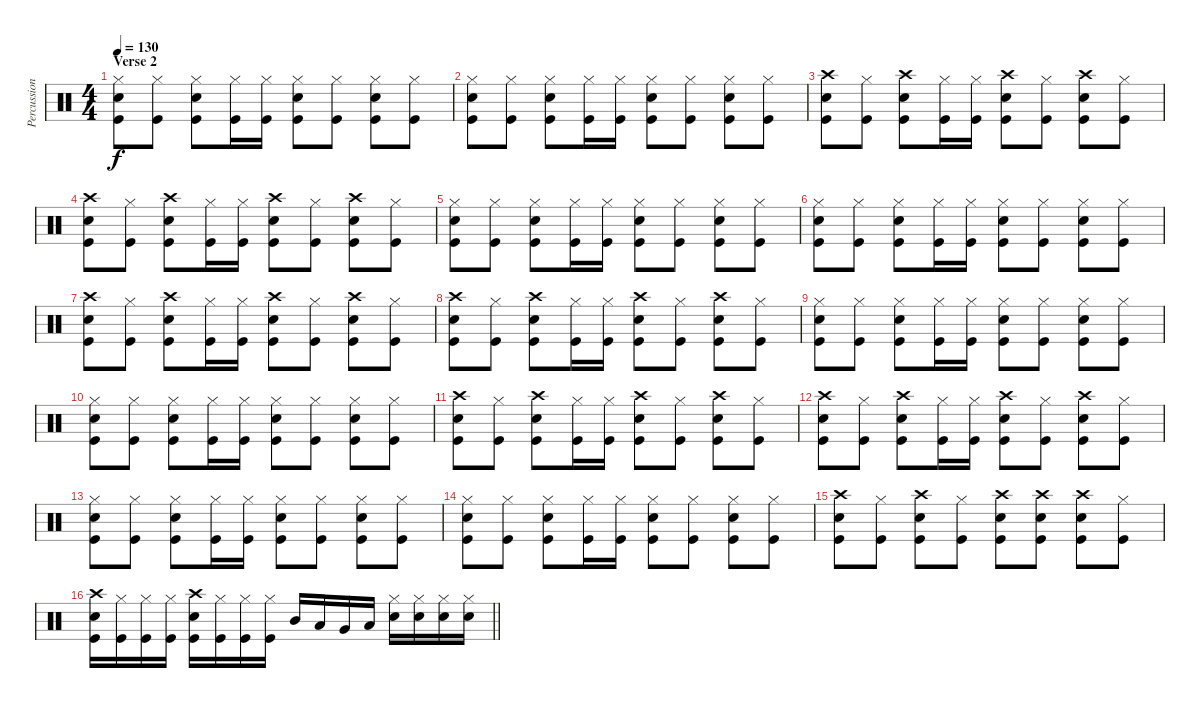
\track ("Percussions" "Percussion") {instrument percussion}
\staff {score}
\articulation defaults
\ts (4 4)
\section ("" "Verse 2")
\tempo 130
\clef neutral
\ks c
("Snare (hit) 2" "Kick (hit)" "Hi-Hat (closed)").8{dy f} ("Kick (hit)" "Hi-Hat (closed)").8 ("Snare (hit) 2" "Kick (hit)" "Hi-Hat (closed)").8 ("Kick (hit)" "Hi-Hat (closed)").16 ("Kick (hit)" "Hi-Hat (closed)").16 ("Snare (hit) 2" "Kick (hit)" "Hi-Hat (closed)").8 ("Kick (hit)" "Hi-Hat (closed)").8 ("Snare (hit) 2" "Kick (hit)" "Hi-Hat (closed)").8 ("Kick (hit)" "Hi-Hat (closed)").8 |
("Snare (hit) 2" "Kick (hit)" "Hi-Hat (closed)").8 ("Kick (hit)" "Hi-Hat (closed)").8 ("Snare (hit) 2" "Kick (hit)" "Hi-Hat (closed)").8 ("Kick (hit)" "Hi-Hat (closed)").16 ("Kick (hit)" "Hi-Hat (closed)").16 ("Snare (hit) 2" "Kick (hit)" "Hi-Hat (closed)").8 ("Kick (hit)" "Hi-Hat (closed)").8 ("Snare (hit) 2" "Kick (hit)" "Hi-Hat (closed)").8 ("Kick (hit)" "Hi-Hat (closed)").8 |
("Snare (hit) 2" "Kick (hit)" "Crash high (hit)").8 ("Kick (hit)" "Hi-Hat (closed)").8 ("Snare (hit) 2" "Kick (hit)" "Crash high (hit)").8 ("Kick (hit)" "Hi-Hat (closed)").16 ("Kick (hit)" "Hi-Hat (closed)").16 ("Snare (hit) 2" "Kick (hit)" "Crash high (hit)").8 ("Kick (hit)" "Hi-Hat (closed)").8 ("Snare (hit) 2" "Kick (hit)" "Crash high (hit)").8 ("Kick (hit)" "Hi-Hat (closed)").8 |
("Snare (hit) 2" "Kick (hit)" "Crash high (hit)").8 ("Kick (hit)" "Hi-Hat (closed)").8 ("Snare (hit) 2" "Kick (hit)" "Crash high (hit)").8 ("Kick (hit)" "Hi-Hat (closed)").16 ("Kick (hit)" "Hi-Hat (closed)").16 ("Snare (hit) 2" "Kick (hit)" "Crash high (hit)").8 ("Kick (hit)" "Hi-Hat (closed)").8 ("Snare (hit) 2" "Kick (hit)" "Crash high (hit)").8 ("Kick (hit)" "Hi-Hat (closed)").8 |
("Snare (hit) 2" "Kick (hit)" "Hi-Hat (closed)").8 ("Kick (hit)" "Hi-Hat (closed)").8 ("Snare (hit) 2" "Kick (hit)" "Hi-Hat (closed)").8 ("Kick (hit)" "Hi-Hat (closed)").16 ("Kick (hit)" "Hi-Hat (closed)").16 ("Snare (hit) 2" "Kick (hit)" "Hi-Hat (closed)").8 ("Kick (hit)" "Hi-Hat (closed)").8 ("Snare (hit) 2" "Kick (hit)" "Hi-Hat (closed)").8 ("Kick (hit)" "Hi-Hat (closed)").8 |
("Snare (hit) 2" "Kick (hit)" "Hi-Hat (closed)").8 ("Kick (hit)" "Hi-Hat (closed)").8 ("Snare (hit) 2" "Kick (hit)" "Hi-Hat (closed)").8 ("Kick (hit)" "Hi-Hat (closed)").16 ("Kick (hit)" "Hi-Hat (closed)").16 ("Snare (hit) 2" "Kick (hit)" "Hi-Hat (closed)").8 ("Kick (hit)" "Hi-Hat (closed)").8 ("Snare (hit) 2" "Kick (hit)" "Hi-Hat (closed)").8 ("Kick (hit)" "Hi-Hat (closed)").8 |
("Snare (hit) 2" "Kick (hit)" "Crash high (hit)").8 ("Kick (hit)" "Hi-Hat (closed)").8 ("Snare (hit) 2" "Kick (hit)" "Crash high (hit)").8 ("Kick (hit)" "Hi-Hat (closed)").16 ("Kick (hit)" "Hi-Hat (closed)").16 ("Snare (hit) 2" "Kick (hit)" "Crash high (hit)").8 ("Kick (hit)" "Hi-Hat (closed)").8 ("Snare (hit) 2" "Kick (hit)" "Crash high (hit)").8 ("Kick (hit)" "Hi-Hat (closed)").8 |
("Snare (hit) 2" "Kick (hit)" "Crash high (hit)").8 ("Kick (hit)" "Hi-Hat (closed)").8 ("Snare (hit) 2" "Kick (hit)" "Crash high (hit)").8 ("Kick (hit)" "Hi-Hat (closed)").16 ("Kick (hit)" "Hi-Hat (closed)").16 ("Snare (hit) 2" "Kick (hit)" "Crash high (hit)").8 ("Kick (hit)" "Hi-Hat (closed)").8 ("Snare (hit) 2" "Kick (hit)" "Crash high (hit)").8 ("Kick (hit)" "Hi-Hat (closed)").8 |
("Snare (hit) 2" "Kick (hit)" "Hi-Hat (closed)").8 ("Kick (hit)" "Hi-Hat (closed)").8 ("Snare (hit) 2" "Kick (hit)" "Hi-Hat (closed)").8 ("Kick (hit)" "Hi-Hat (closed)").16 ("Kick (hit)" "Hi-Hat (closed)").16 ("Snare (hit) 2" "Kick (hit)" "Hi-Hat (closed)").8 ("Kick (hit)" "Hi-Hat (closed)").8 ("Snare (hit) 2" "Kick (hit)" "Hi-Hat (closed)").8 ("Kick (hit)" "Hi-Hat (closed)").8 |
("Snare (hit) 2" "Kick (hit)" "Hi-Hat (closed)").8 ("Kick (hit)" "Hi-Hat (closed)").8 ("Snare (hit) 2" "Kick (hit)" "Hi-Hat (closed)").8 ("Kick (hit)" "Hi-Hat (closed)").16 ("Kick (hit)" "Hi-Hat (closed)").16 ("Snare (hit) 2" "Kick (hit)" "Hi-Hat (closed)").8 ("Kick (hit)" "Hi-Hat (closed)").8 ("Snare (hit) 2" "Kick (hit)" "Hi-Hat (closed)").8 ("Kick (hit)" "Hi-Hat (closed)").8 |
("Snare (hit) 2" "Kick (hit)" "Crash high (hit)").8 ("Kick (hit)" "Hi-Hat (closed)").8 ("Snare (hit) 2" "Kick (hit)" "Crash high (hit)").8 ("Kick (hit)" "Hi-Hat (closed)").16 ("Kick (hit)" "Hi-Hat (closed)").16 ("Snare (hit) 2" "Kick (hit)" "Crash high (hit)").8 ("Kick (hit)" "Hi-Hat (closed)").8 ("Snare (hit) 2" "Kick (hit)" "Crash high (hit)").8 ("Kick (hit)" "Hi-Hat (closed)").8 |
("Snare (hit) 2" "Kick (hit)" "Crash high (hit)").8 ("Kick (hit)" "Hi-Hat (closed)").8 ("Snare (hit) 2" "Kick (hit)" "Crash high (hit)").8 ("Kick (hit)" "Hi-Hat (closed)").16 ("Kick (hit)" "Hi-Hat (closed)").16 ("Snare (hit) 2" "Kick (hit)" "Crash high (hit)").8 ("Kick (hit)" "Hi-Hat (closed)").8 ("Snare (hit) 2" "Kick (hit)" "Crash high (hit)").8 ("Kick (hit)" "Hi-Hat (closed)").8 |
("Snare (hit) 2" "Kick (hit)" "Hi-Hat (closed)").8 ("Kick (hit)" "Hi-Hat (closed)").8 ("Snare (hit) 2" "Kick (hit)" "Hi-Hat (closed)").8 ("Kick (hit)" "Hi-Hat (closed)").16 ("Kick (hit)" "Hi-Hat (closed)").16 ("Snare (hit) 2" "Kick (hit)" "Hi-Hat (closed)").8 ("Kick (hit)" "Hi-Hat (closed)").8 ("Snare (hit) 2" "Kick (hit)" "Hi-Hat (closed)").8 ("Kick (hit)" "Hi-Hat (closed)").8 |
("Snare (hit) 2" "Kick (hit)" "Hi-Hat (closed)").8 ("Kick (hit)" "Hi-Hat (closed)").8 ("Snare (hit) 2" "Kick (hit)" "Hi-Hat (closed)").8 ("Kick (hit)" "Hi-Hat (closed)").16 ("Kick (hit)" "Hi-Hat (closed)").16 ("Snare (hit) 2" "Kick (hit)" "Hi-Hat (closed)").8 ("Kick (hit)" "Hi-Hat (closed)").8 ("Snare (hit) 2" "Kick (hit)" "Hi-Hat (closed)").8 ("Kick (hit)" "Hi-Hat (closed)").8 |
("Snare (hit) 2" "Kick (hit)" "Crash high (hit)").8 ("Kick (hit)" "Hi-Hat (closed)").8 ("Snare (hit) 2" "Kick (hit)" "Crash high (hit)").8 ("Kick (hit)" "Hi-Hat (closed)").8 ("Snare (hit) 2" "Kick (hit)" "Crash high (hit)").8 ("Snare (hit) 2" "Kick (hit)" "Crash high (hit)").8 ("Snare (hit) 2" "Kick (hit)" "Crash high (hit)").8 ("Kick (hit)" "Hi-Hat (closed)").8 |
\barLineRight lightlight
("Snare (hit) 2" "Kick (hit)" "Crash high (hit)").16 ("Kick (hit)" "Hi-Hat (closed)").16 ("Kick (hit)" "Hi-Hat (closed)").16 ("Kick (hit)" "Hi-Hat (closed)").16 ("Snare (hit) 2" "Kick (hit)" "Crash high (hit)").16 ("Kick (hit)" "Hi-Hat (closed)").16 ("Kick (hit)" "Hi-Hat (closed)").16 ("Kick (hit)" "Hi-Hat (closed)").16 "Mid Tom (hit)".16 "Low Tom (hit)".16 "Very Low Tom (hit)".16 "Low Floor Tom (hit)".16 ("Snare (hit) 2" "Hi-Hat (closed)").16 ("Snare (hit) 2" "Hi-Hat (closed)").16 ("Snare (hit) 2" "Hi-Hat (closed)").16 ("Snare (hit) 2" "Hi-Hat (closed)").16
